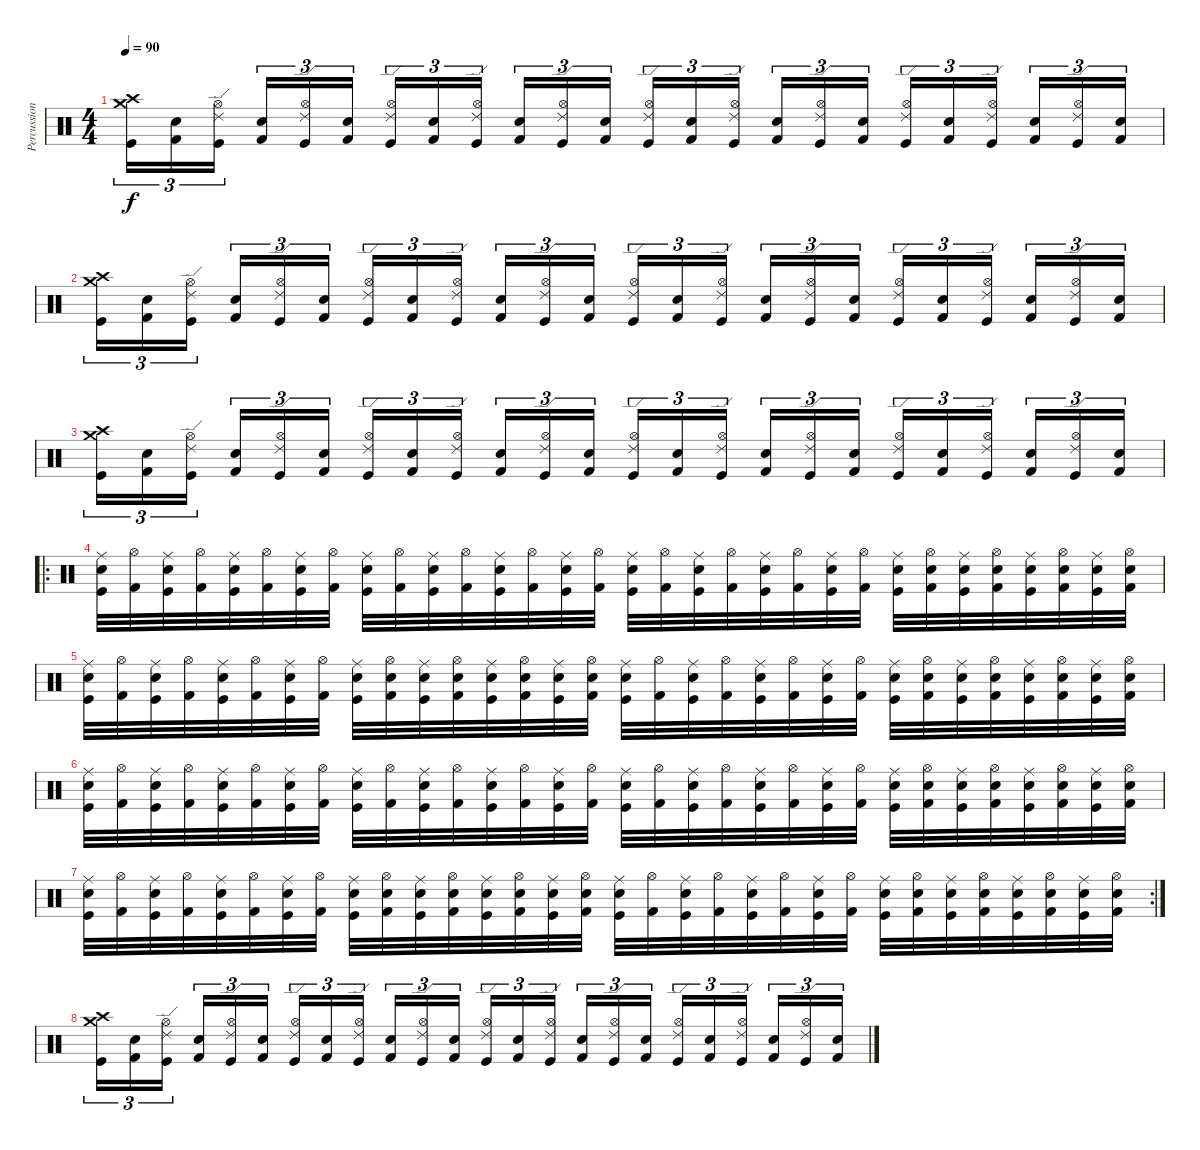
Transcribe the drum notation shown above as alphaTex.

\track ("Percussion" "Percussion") {instrument percussion}
\staff {score}
\articulation defaults
\ts (4 4)
\tempo 90
\clef neutral
\ks c
("Crash high (hit)" "Crash medium (hit)" "Kick (hit)").16{tu (3 2) dy f} ("Snare (hit) 2" "Kick (hit) 2").16{tu (3 2)} ("Hi-Hat (open)" "Ride (edge) 2" "Kick (hit)").16{tu (3 2)} ("Snare (hit) 2" "Kick (hit) 2").16{tu (3 2)} ("Hi-Hat (open)" "Ride (edge) 2" "Kick (hit)").16{tu (3 2)} ("Snare (hit) 2" "Kick (hit) 2").16{tu (3 2)} ("Hi-Hat (open)" "Ride (edge) 2" "Kick (hit)").16{tu (3 2)} ("Snare (hit) 2" "Kick (hit) 2").16{tu (3 2)} ("Hi-Hat (open)" "Ride (edge) 2" "Kick (hit)").16{tu (3 2)} ("Snare (hit) 2" "Kick (hit) 2").16{tu (3 2)} ("Hi-Hat (open)" "Ride (edge) 2" "Kick (hit)").16{tu (3 2)} ("Snare (hit) 2" "Kick (hit) 2").16{tu (3 2)} ("Hi-Hat (open)" "Ride (edge) 2" "Kick (hit)").16{tu (3 2)} ("Snare (hit) 2" "Kick (hit) 2").16{tu (3 2)} ("Hi-Hat (open)" "Ride (edge) 2" "Kick (hit)").16{tu (3 2)} ("Snare (hit) 2" "Kick (hit) 2").16{tu (3 2)} ("Hi-Hat (open)" "Ride (edge) 2" "Kick (hit)").16{tu (3 2)} ("Snare (hit) 2" "Kick (hit) 2").16{tu (3 2)} ("Hi-Hat (open)" "Ride (edge) 2" "Kick (hit)").16{tu (3 2)} ("Snare (hit) 2" "Kick (hit) 2").16{tu (3 2)} ("Hi-Hat (open)" "Ride (edge) 2" "Kick (hit)").16{tu (3 2)} ("Snare (hit) 2" "Kick (hit) 2").16{tu (3 2)} ("Hi-Hat (open)" "Ride (edge) 2" "Kick (hit)").16{tu (3 2)} ("Snare (hit) 2" "Kick (hit) 2").16{tu (3 2)} |
("Crash high (hit)" "Crash medium (hit)" "Kick (hit)").16{tu (3 2)} ("Snare (hit) 2" "Kick (hit) 2").16{tu (3 2)} ("Hi-Hat (open)" "Ride (edge) 2" "Kick (hit)").16{tu (3 2)} ("Snare (hit) 2" "Kick (hit) 2").16{tu (3 2)} ("Hi-Hat (open)" "Ride (edge) 2" "Kick (hit)").16{tu (3 2)} ("Snare (hit) 2" "Kick (hit) 2").16{tu (3 2)} ("Hi-Hat (open)" "Ride (edge) 2" "Kick (hit)").16{tu (3 2)} ("Snare (hit) 2" "Kick (hit) 2").16{tu (3 2)} ("Hi-Hat (open)" "Ride (edge) 2" "Kick (hit)").16{tu (3 2)} ("Snare (hit) 2" "Kick (hit) 2").16{tu (3 2)} ("Hi-Hat (open)" "Ride (edge) 2" "Kick (hit)").16{tu (3 2)} ("Snare (hit) 2" "Kick (hit) 2").16{tu (3 2)} ("Hi-Hat (open)" "Ride (edge) 2" "Kick (hit)").16{tu (3 2)} ("Snare (hit) 2" "Kick (hit) 2").16{tu (3 2)} ("Hi-Hat (open)" "Ride (edge) 2" "Kick (hit)").16{tu (3 2)} ("Snare (hit) 2" "Kick (hit) 2").16{tu (3 2)} ("Hi-Hat (open)" "Ride (edge) 2" "Kick (hit)").16{tu (3 2)} ("Snare (hit) 2" "Kick (hit) 2").16{tu (3 2)} ("Hi-Hat (open)" "Ride (edge) 2" "Kick (hit)").16{tu (3 2)} ("Snare (hit) 2" "Kick (hit) 2").16{tu (3 2)} ("Hi-Hat (open)" "Ride (edge) 2" "Kick (hit)").16{tu (3 2)} ("Snare (hit) 2" "Kick (hit) 2").16{tu (3 2)} ("Hi-Hat (open)" "Ride (edge) 2" "Kick (hit)").16{tu (3 2)} ("Snare (hit) 2" "Kick (hit) 2").16{tu (3 2)} |
("Crash high (hit)" "Crash medium (hit)" "Kick (hit)").16{tu (3 2)} ("Snare (hit) 2" "Kick (hit) 2").16{tu (3 2)} ("Hi-Hat (open)" "Ride (edge) 2" "Kick (hit)").16{tu (3 2)} ("Snare (hit) 2" "Kick (hit) 2").16{tu (3 2)} ("Hi-Hat (open)" "Ride (edge) 2" "Kick (hit)").16{tu (3 2)} ("Snare (hit) 2" "Kick (hit) 2").16{tu (3 2)} ("Hi-Hat (open)" "Ride (edge) 2" "Kick (hit)").16{tu (3 2)} ("Snare (hit) 2" "Kick (hit) 2").16{tu (3 2)} ("Hi-Hat (open)" "Ride (edge) 2" "Kick (hit)").16{tu (3 2)} ("Snare (hit) 2" "Kick (hit) 2").16{tu (3 2)} ("Hi-Hat (open)" "Ride (edge) 2" "Kick (hit)").16{tu (3 2)} ("Snare (hit) 2" "Kick (hit) 2").16{tu (3 2)} ("Hi-Hat (open)" "Ride (edge) 2" "Kick (hit)").16{tu (3 2)} ("Snare (hit) 2" "Kick (hit) 2").16{tu (3 2)} ("Hi-Hat (open)" "Ride (edge) 2" "Kick (hit)").16{tu (3 2)} ("Snare (hit) 2" "Kick (hit) 2").16{tu (3 2)} ("Hi-Hat (open)" "Ride (edge) 2" "Kick (hit)").16{tu (3 2)} ("Snare (hit) 2" "Kick (hit) 2").16{tu (3 2)} ("Hi-Hat (open)" "Ride (edge) 2" "Kick (hit)").16{tu (3 2)} ("Snare (hit) 2" "Kick (hit) 2").16{tu (3 2)} ("Hi-Hat (open)" "Ride (edge) 2" "Kick (hit)").16{tu (3 2)} ("Snare (hit) 2" "Kick (hit) 2").16{tu (3 2)} ("Hi-Hat (open)" "Ride (edge) 2" "Kick (hit)").16{tu (3 2)} ("Snare (hit) 2" "Kick (hit) 2").16{tu (3 2)} |
\ro
("Electric Snare (hit)" "Ride (middle)" "Kick (hit)").32 ("Hi-Hat (open)" "Kick (hit) 2").32 ("Electric Snare (hit)" "Ride (middle)" "Kick (hit)").32 ("Hi-Hat (open)" "Kick (hit) 2").32 ("Electric Snare (hit)" "Ride (middle)" "Kick (hit)").32 ("Hi-Hat (open)" "Kick (hit) 2").32 ("Electric Snare (hit)" "Ride (middle)" "Kick (hit)").32 ("Hi-Hat (open)" "Kick (hit) 2").32 ("Electric Snare (hit)" "Ride (middle)" "Kick (hit)").32 ("Hi-Hat (open)" "Kick (hit) 2").32 ("Electric Snare (hit)" "Ride (middle)" "Kick (hit)").32 ("Hi-Hat (open)" "Kick (hit) 2").32 ("Electric Snare (hit)" "Ride (middle)" "Kick (hit)").32 ("Hi-Hat (open)" "Kick (hit) 2").32 ("Electric Snare (hit)" "Ride (middle)" "Kick (hit)").32 ("Hi-Hat (open)" "Kick (hit) 2").32 ("Electric Snare (hit)" "Ride (middle)" "Kick (hit)").32 ("Hi-Hat (open)" "Kick (hit) 2").32 ("Electric Snare (hit)" "Ride (middle)" "Kick (hit)").32 ("Hi-Hat (open)" "Kick (hit) 2").32 ("Electric Snare (hit)" "Ride (middle)" "Kick (hit)").32 ("Hi-Hat (open)" "Kick (hit) 2").32 ("Electric Snare (hit)" "Ride (middle)" "Kick (hit)").32 ("Hi-Hat (open)" "Kick (hit) 2").32 ("Electric Snare (hit)" "Ride (middle)" "Kick (hit)").32 ("Electric Snare (hit)" "Hi-Hat (open)" "Kick (hit) 2").32 ("Electric Snare (hit)" "Ride (middle)" "Kick (hit)").32 ("Electric Snare (hit)" "Hi-Hat (open)" "Kick (hit) 2").32 ("Electric Snare (hit)" "Ride (middle)" "Kick (hit)").32 ("Electric Snare (hit)" "Hi-Hat (open)" "Kick (hit) 2").32 ("Electric Snare (hit)" "Ride (middle)" "Kick (hit)").32 ("Electric Snare (hit)" "Hi-Hat (open)" "Kick (hit) 2").32 |
("Electric Snare (hit)" "Ride (middle)" "Kick (hit)").32 ("Hi-Hat (open)" "Kick (hit) 2").32 ("Electric Snare (hit)" "Ride (middle)" "Kick (hit)").32 ("Hi-Hat (open)" "Kick (hit) 2").32 ("Electric Snare (hit)" "Ride (middle)" "Kick (hit)").32 ("Hi-Hat (open)" "Kick (hit) 2").32 ("Electric Snare (hit)" "Ride (middle)" "Kick (hit)").32 ("Hi-Hat (open)" "Kick (hit) 2").32 ("Electric Snare (hit)" "Ride (middle)" "Kick (hit)").32 ("Electric Snare (hit)" "Hi-Hat (open)" "Kick (hit) 2").32 ("Electric Snare (hit)" "Ride (middle)" "Kick (hit)").32 ("Electric Snare (hit)" "Hi-Hat (open)" "Kick (hit) 2").32 ("Electric Snare (hit)" "Ride (middle)" "Kick (hit)").32 ("Electric Snare (hit)" "Hi-Hat (open)" "Kick (hit) 2").32 ("Electric Snare (hit)" "Ride (middle)" "Kick (hit)").32 ("Electric Snare (hit)" "Hi-Hat (open)" "Kick (hit) 2").32 ("Electric Snare (hit)" "Ride (middle)" "Kick (hit)").32 ("Hi-Hat (open)" "Kick (hit) 2").32 ("Electric Snare (hit)" "Ride (middle)" "Kick (hit)").32 ("Hi-Hat (open)" "Kick (hit) 2").32 ("Electric Snare (hit)" "Ride (middle)" "Kick (hit)").32 ("Hi-Hat (open)" "Kick (hit) 2").32 ("Electric Snare (hit)" "Ride (middle)" "Kick (hit)").32 ("Hi-Hat (open)" "Kick (hit) 2").32 ("Electric Snare (hit)" "Ride (middle)" "Kick (hit)").32 ("Electric Snare (hit)" "Hi-Hat (open)" "Kick (hit) 2").32 ("Electric Snare (hit)" "Ride (middle)" "Kick (hit)").32 ("Electric Snare (hit)" "Hi-Hat (open)" "Kick (hit) 2").32 ("Electric Snare (hit)" "Ride (middle)" "Kick (hit)").32 ("Electric Snare (hit)" "Hi-Hat (open)" "Kick (hit) 2").32 ("Electric Snare (hit)" "Ride (middle)" "Kick (hit)").32 ("Electric Snare (hit)" "Hi-Hat (open)" "Kick (hit) 2").32 |
("Electric Snare (hit)" "Ride (middle)" "Kick (hit)").32 ("Hi-Hat (open)" "Kick (hit) 2").32 ("Electric Snare (hit)" "Ride (middle)" "Kick (hit)").32 ("Hi-Hat (open)" "Kick (hit) 2").32 ("Electric Snare (hit)" "Ride (middle)" "Kick (hit)").32 ("Hi-Hat (open)" "Kick (hit) 2").32 ("Electric Snare (hit)" "Ride (middle)" "Kick (hit)").32 ("Hi-Hat (open)" "Kick (hit) 2").32 ("Electric Snare (hit)" "Ride (middle)" "Kick (hit)").32 ("Hi-Hat (open)" "Kick (hit) 2").32 ("Electric Snare (hit)" "Ride (middle)" "Kick (hit)").32 ("Hi-Hat (open)" "Kick (hit) 2").32 ("Electric Snare (hit)" "Ride (middle)" "Kick (hit)").32 ("Hi-Hat (open)" "Kick (hit) 2").32 ("Electric Snare (hit)" "Ride (middle)" "Kick (hit)").32 ("Hi-Hat (open)" "Kick (hit) 2").32 ("Electric Snare (hit)" "Ride (middle)" "Kick (hit)").32 ("Hi-Hat (open)" "Kick (hit) 2").32 ("Electric Snare (hit)" "Ride (middle)" "Kick (hit)").32 ("Hi-Hat (open)" "Kick (hit) 2").32 ("Electric Snare (hit)" "Ride (middle)" "Kick (hit)").32 ("Hi-Hat (open)" "Kick (hit) 2").32 ("Electric Snare (hit)" "Ride (middle)" "Kick (hit)").32 ("Hi-Hat (open)" "Kick (hit) 2").32 ("Electric Snare (hit)" "Ride (middle)" "Kick (hit)").32 ("Electric Snare (hit)" "Hi-Hat (open)" "Kick (hit) 2").32 ("Electric Snare (hit)" "Ride (middle)" "Kick (hit)").32 ("Electric Snare (hit)" "Hi-Hat (open)" "Kick (hit) 2").32 ("Electric Snare (hit)" "Ride (middle)" "Kick (hit)").32 ("Electric Snare (hit)" "Hi-Hat (open)" "Kick (hit) 2").32 ("Electric Snare (hit)" "Ride (middle)" "Kick (hit)").32 ("Electric Snare (hit)" "Hi-Hat (open)" "Kick (hit) 2").32 |
\rc 2
("Electric Snare (hit)" "Ride (middle)" "Kick (hit)").32 ("Hi-Hat (open)" "Kick (hit) 2").32 ("Electric Snare (hit)" "Ride (middle)" "Kick (hit)").32 ("Hi-Hat (open)" "Kick (hit) 2").32 ("Electric Snare (hit)" "Ride (middle)" "Kick (hit)").32 ("Hi-Hat (open)" "Kick (hit) 2").32 ("Electric Snare (hit)" "Ride (middle)" "Kick (hit)").32 ("Hi-Hat (open)" "Kick (hit) 2").32 ("Electric Snare (hit)" "Ride (middle)" "Kick (hit)").32 ("Electric Snare (hit)" "Hi-Hat (open)" "Kick (hit) 2").32 ("Electric Snare (hit)" "Ride (middle)" "Kick (hit)").32 ("Electric Snare (hit)" "Hi-Hat (open)" "Kick (hit) 2").32 ("Electric Snare (hit)" "Ride (middle)" "Kick (hit)").32 ("Electric Snare (hit)" "Hi-Hat (open)" "Kick (hit) 2").32 ("Electric Snare (hit)" "Ride (middle)" "Kick (hit)").32 ("Electric Snare (hit)" "Hi-Hat (open)" "Kick (hit) 2").32 ("Electric Snare (hit)" "Ride (middle)" "Kick (hit)").32 ("Hi-Hat (open)" "Kick (hit) 2").32 ("Electric Snare (hit)" "Ride (middle)" "Kick (hit)").32 ("Hi-Hat (open)" "Kick (hit) 2").32 ("Electric Snare (hit)" "Ride (middle)" "Kick (hit)").32 ("Hi-Hat (open)" "Kick (hit) 2").32 ("Electric Snare (hit)" "Ride (middle)" "Kick (hit)").32 ("Hi-Hat (open)" "Kick (hit) 2").32 ("Electric Snare (hit)" "Ride (middle)" "Kick (hit)").32 ("Electric Snare (hit)" "Hi-Hat (open)" "Kick (hit) 2").32 ("Electric Snare (hit)" "Ride (middle)" "Kick (hit)").32 ("Electric Snare (hit)" "Hi-Hat (open)" "Kick (hit) 2").32 ("Electric Snare (hit)" "Ride (middle)" "Kick (hit)").32 ("Electric Snare (hit)" "Hi-Hat (open)" "Kick (hit) 2").32 ("Electric Snare (hit)" "Ride (middle)" "Kick (hit)").32 ("Electric Snare (hit)" "Hi-Hat (open)" "Kick (hit) 2").32 |
("Crash high (hit)" "Crash medium (hit)" "Kick (hit)").16{tu (3 2)} ("Snare (hit) 2" "Kick (hit) 2").16{tu (3 2)} ("Hi-Hat (open)" "Ride (edge) 2" "Kick (hit)").16{tu (3 2)} ("Snare (hit) 2" "Kick (hit) 2").16{tu (3 2)} ("Hi-Hat (open)" "Ride (edge) 2" "Kick (hit)").16{tu (3 2)} ("Snare (hit) 2" "Kick (hit) 2").16{tu (3 2)} ("Hi-Hat (open)" "Ride (edge) 2" "Kick (hit)").16{tu (3 2)} ("Snare (hit) 2" "Kick (hit) 2").16{tu (3 2)} ("Hi-Hat (open)" "Ride (edge) 2" "Kick (hit)").16{tu (3 2)} ("Snare (hit) 2" "Kick (hit) 2").16{tu (3 2)} ("Hi-Hat (open)" "Ride (edge) 2" "Kick (hit)").16{tu (3 2)} ("Snare (hit) 2" "Kick (hit) 2").16{tu (3 2)} ("Hi-Hat (open)" "Ride (edge) 2" "Kick (hit)").16{tu (3 2)} ("Snare (hit) 2" "Kick (hit) 2").16{tu (3 2)} ("Hi-Hat (open)" "Ride (edge) 2" "Kick (hit)").16{tu (3 2)} ("Snare (hit) 2" "Kick (hit) 2").16{tu (3 2)} ("Hi-Hat (open)" "Ride (edge) 2" "Kick (hit)").16{tu (3 2)} ("Snare (hit) 2" "Kick (hit) 2").16{tu (3 2)} ("Hi-Hat (open)" "Ride (edge) 2" "Kick (hit)").16{tu (3 2)} ("Snare (hit) 2" "Kick (hit) 2").16{tu (3 2)} ("Hi-Hat (open)" "Ride (edge) 2" "Kick (hit)").16{tu (3 2)} ("Snare (hit) 2" "Kick (hit) 2").16{tu (3 2)} ("Hi-Hat (open)" "Ride (edge) 2" "Kick (hit)").16{tu (3 2)} ("Snare (hit) 2" "Kick (hit) 2").16{tu (3 2)}
